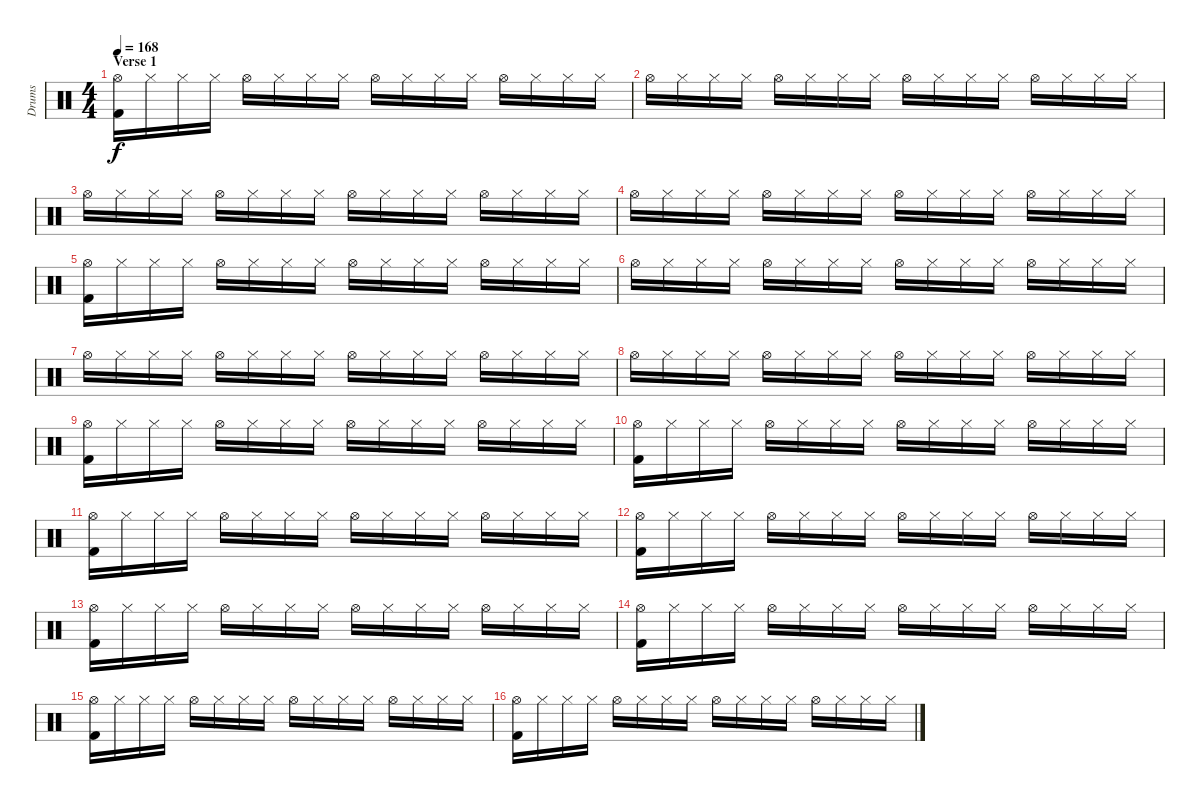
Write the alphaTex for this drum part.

\track ("Drums" "Drums") {instrument percussion}
\staff {score}
\articulation defaults
\ts (4 4)
\section ("" "Verse 1")
\tempo 168
\clef neutral
\ks c
("Hi-Hat (open)" "Kick (hit) 2").16{dy f} "Hi-Hat (closed)".16 "Hi-Hat (closed)".16 "Hi-Hat (closed)".16 "Hi-Hat (open)".16 "Hi-Hat (closed)".16 "Hi-Hat (closed)".16 "Hi-Hat (closed)".16 "Hi-Hat (open)".16 "Hi-Hat (closed)".16 "Hi-Hat (closed)".16 "Hi-Hat (closed)".16 "Hi-Hat (open)".16 "Hi-Hat (closed)".16 "Hi-Hat (closed)".16 "Hi-Hat (closed)".16 |
"Hi-Hat (open)".16 "Hi-Hat (closed)".16 "Hi-Hat (closed)".16 "Hi-Hat (closed)".16 "Hi-Hat (open)".16 "Hi-Hat (closed)".16 "Hi-Hat (closed)".16 "Hi-Hat (closed)".16 "Hi-Hat (open)".16 "Hi-Hat (closed)".16 "Hi-Hat (closed)".16 "Hi-Hat (closed)".16 "Hi-Hat (open)".16 "Hi-Hat (closed)".16 "Hi-Hat (closed)".16 "Hi-Hat (closed)".16 |
"Hi-Hat (open)".16 "Hi-Hat (closed)".16 "Hi-Hat (closed)".16 "Hi-Hat (closed)".16 "Hi-Hat (open)".16 "Hi-Hat (closed)".16 "Hi-Hat (closed)".16 "Hi-Hat (closed)".16 "Hi-Hat (open)".16 "Hi-Hat (closed)".16 "Hi-Hat (closed)".16 "Hi-Hat (closed)".16 "Hi-Hat (open)".16 "Hi-Hat (closed)".16 "Hi-Hat (closed)".16 "Hi-Hat (closed)".16 |
"Hi-Hat (open)".16 "Hi-Hat (closed)".16 "Hi-Hat (closed)".16 "Hi-Hat (closed)".16 "Hi-Hat (open)".16 "Hi-Hat (closed)".16 "Hi-Hat (closed)".16 "Hi-Hat (closed)".16 "Hi-Hat (open)".16 "Hi-Hat (closed)".16 "Hi-Hat (closed)".16 "Hi-Hat (closed)".16 "Hi-Hat (open)".16 "Hi-Hat (closed)".16 "Hi-Hat (closed)".16 "Hi-Hat (closed)".16 |
("Hi-Hat (open)" "Kick (hit) 2").16 "Hi-Hat (closed)".16 "Hi-Hat (closed)".16 "Hi-Hat (closed)".16 "Hi-Hat (open)".16 "Hi-Hat (closed)".16 "Hi-Hat (closed)".16 "Hi-Hat (closed)".16 "Hi-Hat (open)".16 "Hi-Hat (closed)".16 "Hi-Hat (closed)".16 "Hi-Hat (closed)".16 "Hi-Hat (open)".16 "Hi-Hat (closed)".16 "Hi-Hat (closed)".16 "Hi-Hat (closed)".16 |
"Hi-Hat (open)".16 "Hi-Hat (closed)".16 "Hi-Hat (closed)".16 "Hi-Hat (closed)".16 "Hi-Hat (open)".16 "Hi-Hat (closed)".16 "Hi-Hat (closed)".16 "Hi-Hat (closed)".16 "Hi-Hat (open)".16 "Hi-Hat (closed)".16 "Hi-Hat (closed)".16 "Hi-Hat (closed)".16 "Hi-Hat (open)".16 "Hi-Hat (closed)".16 "Hi-Hat (closed)".16 "Hi-Hat (closed)".16 |
"Hi-Hat (open)".16 "Hi-Hat (closed)".16 "Hi-Hat (closed)".16 "Hi-Hat (closed)".16 "Hi-Hat (open)".16 "Hi-Hat (closed)".16 "Hi-Hat (closed)".16 "Hi-Hat (closed)".16 "Hi-Hat (open)".16 "Hi-Hat (closed)".16 "Hi-Hat (closed)".16 "Hi-Hat (closed)".16 "Hi-Hat (open)".16 "Hi-Hat (closed)".16 "Hi-Hat (closed)".16 "Hi-Hat (closed)".16 |
"Hi-Hat (open)".16 "Hi-Hat (closed)".16 "Hi-Hat (closed)".16 "Hi-Hat (closed)".16 "Hi-Hat (open)".16 "Hi-Hat (closed)".16 "Hi-Hat (closed)".16 "Hi-Hat (closed)".16 "Hi-Hat (open)".16 "Hi-Hat (closed)".16 "Hi-Hat (closed)".16 "Hi-Hat (closed)".16 "Hi-Hat (open)".16 "Hi-Hat (closed)".16 "Hi-Hat (closed)".16 "Hi-Hat (closed)".16 |
("Hi-Hat (open)" "Kick (hit) 2").16 "Hi-Hat (closed)".16 "Hi-Hat (closed)".16 "Hi-Hat (closed)".16 "Hi-Hat (open)".16 "Hi-Hat (closed)".16 "Hi-Hat (closed)".16 "Hi-Hat (closed)".16 "Hi-Hat (open)".16 "Hi-Hat (closed)".16 "Hi-Hat (closed)".16 "Hi-Hat (closed)".16 "Hi-Hat (open)".16 "Hi-Hat (closed)".16 "Hi-Hat (closed)".16 "Hi-Hat (closed)".16 |
("Hi-Hat (open)" "Kick (hit) 2").16 "Hi-Hat (closed)".16 "Hi-Hat (closed)".16 "Hi-Hat (closed)".16 "Hi-Hat (open)".16 "Hi-Hat (closed)".16 "Hi-Hat (closed)".16 "Hi-Hat (closed)".16 "Hi-Hat (open)".16 "Hi-Hat (closed)".16 "Hi-Hat (closed)".16 "Hi-Hat (closed)".16 "Hi-Hat (open)".16 "Hi-Hat (closed)".16 "Hi-Hat (closed)".16 "Hi-Hat (closed)".16 |
("Hi-Hat (open)" "Kick (hit) 2").16 "Hi-Hat (closed)".16 "Hi-Hat (closed)".16 "Hi-Hat (closed)".16 "Hi-Hat (open)".16 "Hi-Hat (closed)".16 "Hi-Hat (closed)".16 "Hi-Hat (closed)".16 "Hi-Hat (open)".16 "Hi-Hat (closed)".16 "Hi-Hat (closed)".16 "Hi-Hat (closed)".16 "Hi-Hat (open)".16 "Hi-Hat (closed)".16 "Hi-Hat (closed)".16 "Hi-Hat (closed)".16 |
("Hi-Hat (open)" "Kick (hit) 2").16 "Hi-Hat (closed)".16 "Hi-Hat (closed)".16 "Hi-Hat (closed)".16 "Hi-Hat (open)".16 "Hi-Hat (closed)".16 "Hi-Hat (closed)".16 "Hi-Hat (closed)".16 "Hi-Hat (open)".16 "Hi-Hat (closed)".16 "Hi-Hat (closed)".16 "Hi-Hat (closed)".16 "Hi-Hat (open)".16 "Hi-Hat (closed)".16 "Hi-Hat (closed)".16 "Hi-Hat (closed)".16 |
("Hi-Hat (open)" "Kick (hit) 2").16 "Hi-Hat (closed)".16 "Hi-Hat (closed)".16 "Hi-Hat (closed)".16 "Hi-Hat (open)".16 "Hi-Hat (closed)".16 "Hi-Hat (closed)".16 "Hi-Hat (closed)".16 "Hi-Hat (open)".16 "Hi-Hat (closed)".16 "Hi-Hat (closed)".16 "Hi-Hat (closed)".16 "Hi-Hat (open)".16 "Hi-Hat (closed)".16 "Hi-Hat (closed)".16 "Hi-Hat (closed)".16 |
("Hi-Hat (open)" "Kick (hit) 2").16 "Hi-Hat (closed)".16 "Hi-Hat (closed)".16 "Hi-Hat (closed)".16 "Hi-Hat (open)".16 "Hi-Hat (closed)".16 "Hi-Hat (closed)".16 "Hi-Hat (closed)".16 "Hi-Hat (open)".16 "Hi-Hat (closed)".16 "Hi-Hat (closed)".16 "Hi-Hat (closed)".16 "Hi-Hat (open)".16 "Hi-Hat (closed)".16 "Hi-Hat (closed)".16 "Hi-Hat (closed)".16 |
("Hi-Hat (open)" "Kick (hit) 2").16 "Hi-Hat (closed)".16 "Hi-Hat (closed)".16 "Hi-Hat (closed)".16 "Hi-Hat (open)".16 "Hi-Hat (closed)".16 "Hi-Hat (closed)".16 "Hi-Hat (closed)".16 "Hi-Hat (open)".16 "Hi-Hat (closed)".16 "Hi-Hat (closed)".16 "Hi-Hat (closed)".16 "Hi-Hat (open)".16 "Hi-Hat (closed)".16 "Hi-Hat (closed)".16 "Hi-Hat (closed)".16 |
("Hi-Hat (open)" "Kick (hit) 2").16 "Hi-Hat (closed)".16 "Hi-Hat (closed)".16 "Hi-Hat (closed)".16 "Hi-Hat (open)".16 "Hi-Hat (closed)".16 "Hi-Hat (closed)".16 "Hi-Hat (closed)".16 "Hi-Hat (open)".16 "Hi-Hat (closed)".16 "Hi-Hat (closed)".16 "Hi-Hat (closed)".16 "Hi-Hat (open)".16 "Hi-Hat (closed)".16 "Hi-Hat (closed)".16 "Hi-Hat (closed)".16
